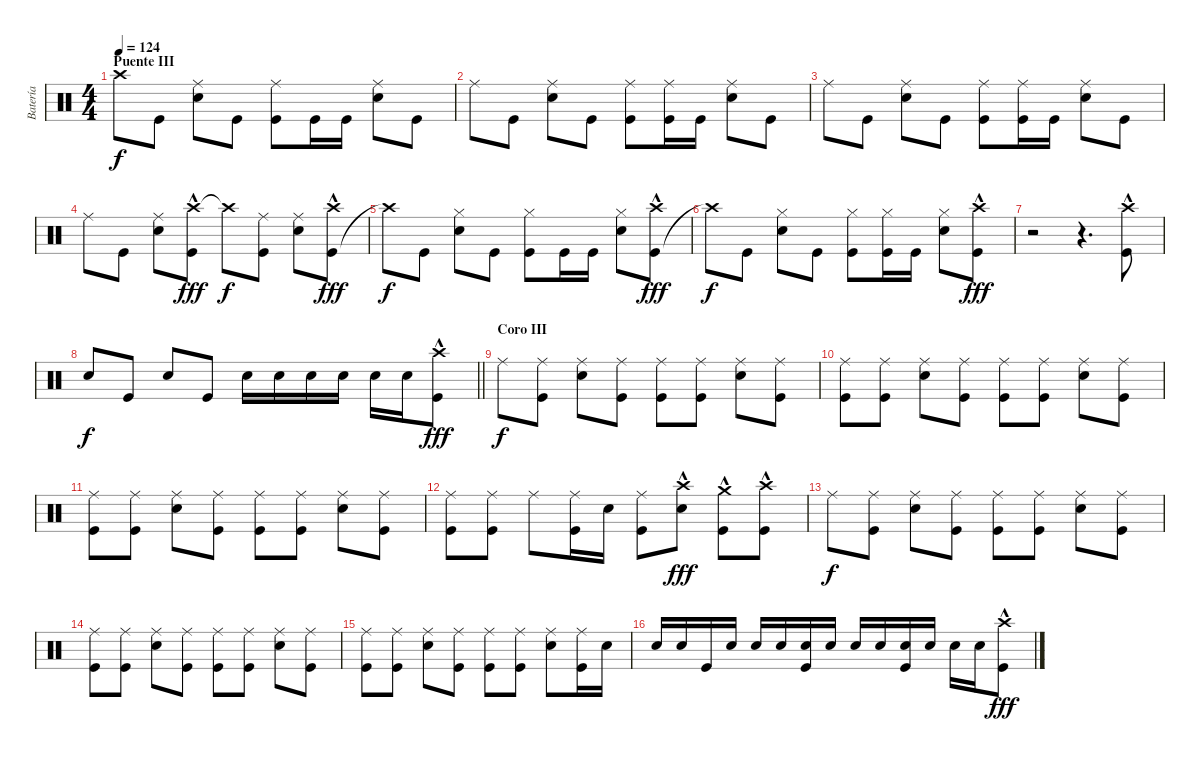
\track ("Batería" "Batería") {instrument percussion}
\staff {score}
\articulation defaults
\ts (4 4)
\section ("" "Puente III")
\tempo 124
\clef neutral
\ks c "Crash high (hit)"{t}.8{dy f} "Kick (hit)".8
("Snare (hit) 2" "Ride (middle)").8 "Kick (hit)".8 ("Ride (middle)" "Kick (hit)").8 "Kick (hit)".16 "Kick (hit)".16 ("Snare (hit) 2" "Ride (middle)").8 "Kick (hit)".8 |
"Ride (middle)".8 "Kick (hit)".8 ("Snare (hit) 2" "Ride (middle)").8 "Kick (hit)".8 ("Ride (middle)" "Kick (hit)").8 ("Kick (hit)" "Ride (middle)").16 "Kick (hit)".16 ("Ride (middle)" "Snare (hit) 2").8 "Kick (hit)".8 |
"Ride (middle)".8 "Kick (hit)".8 ("Snare (hit) 2" "Ride (middle)").8 "Kick (hit)".8 ("Ride (middle)" "Kick (hit)").8 ("Kick (hit)" "Ride (middle)").16 "Kick (hit)".16 ("Ride (middle)" "Snare (hit) 2").8 "Kick (hit)".8 |
"Ride (middle)".8 "Kick (hit)".8 ("Ride (middle)" "Snare (hit) 2").8 ("Crash high (hit)"{hac} "Kick (hit)").8{dy fff} "Crash high (hit)"{t}.8{dy f} ("Ride (middle)" "Kick (hit)").8 ("Snare (hit) 2" "Ride (middle)").8 ("Kick (hit)" "Crash high (hit)"{hac}).8{dy fff} |
"Crash high (hit)"{t}.8{dy f} "Kick (hit)".8 ("Snare (hit) 2" "Hi-Hat (closed)").8 "Kick (hit)".8 ("Hi-Hat (closed)" "Kick (hit)").8 "Kick (hit)".16 "Kick (hit)".16 ("Snare (hit) 2" "Hi-Hat (closed)").8 ("Kick (hit)" "Crash high (hit)"{hac}).8{dy fff} |
"Crash high (hit)"{t}.8{dy f} "Kick (hit)".8 ("Snare (hit) 2" "Hi-Hat (closed)").8 "Kick (hit)".8 ("Kick (hit)" "Hi-Hat (closed)").8 ("Kick (hit)" "Hi-Hat (closed)").16 "Kick (hit)".16 ("Hi-Hat (closed)" "Snare (hit) 2").8 ("Kick (hit)" "Crash high (hit)"{hac}).8{dy fff} |
r.2 r.4{d} ("Kick (hit)" "Crash high (hit)"{hac}).8 |
\barLineRight lightlight "Snare (hit) 2".8{dy f} "Kick (hit)".8 "Snare (hit) 2".8 "Kick (hit)".8 "Snare (hit) 2".16 "Snare (hit) 2".16 "Snare (hit) 2".16 "Snare (hit) 2".16 "Snare (hit) 2".16 "Snare (hit) 2".16
("Crash high (hit)" "Kick (hit)"{hac}).8{dy fff} |
\section ("" "Coro III")
"Ride (middle)".8{dy f} ("Ride (middle)" "Kick (hit)").8 ("Ride (middle)" "Snare (hit) 2").8 ("Ride (middle)" "Kick (hit)").8 ("Ride (middle)" "Kick (hit)").8 ("Ride (middle)" "Kick (hit)").8 ("Ride (middle)" "Snare (hit) 2").8 ("Ride (middle)" "Kick (hit)").8 |
("Ride (middle)" "Kick (hit)").8 ("Ride (middle)" "Kick (hit)").8 ("Ride (middle)" "Snare (hit) 2").8 ("Ride (middle)" "Kick (hit)").8 ("Ride (middle)" "Kick (hit)").8 ("Ride (middle)" "Kick (hit)").8 ("Ride (middle)" "Snare (hit) 2").8 ("Ride (middle)" "Kick (hit)").8 |
("Ride (middle)" "Kick (hit)").8 ("Ride (middle)" "Kick (hit)").8 ("Ride (middle)" "Snare (hit) 2").8 ("Ride (middle)" "Kick (hit)").8 ("Ride (middle)" "Kick (hit)").8 ("Ride (middle)" "Kick (hit)").8 ("Ride (middle)" "Snare (hit) 2").8 ("Ride (middle)" "Kick (hit)").8 |
("Kick (hit)" "Ride (middle)").8 ("Ride (middle)" "Kick (hit)").8 "Ride (middle)".8 ("Ride (middle)" "Kick (hit)").16 "Snare (hit) 2".16 ("Kick (hit)" "Ride (middle)").8 ("Snare (hit) 2" "Crash high (hit)"{hac}).8{dy fff} ("Kick (hit)" "Crash medium (hit)"{hac}).8 ("Kick (hit)" "Crash high (hit)"{hac}).8 |
"Ride (middle)".8{dy f} ("Ride (middle)" "Kick (hit)").8 ("Ride (middle)" "Snare (hit) 2").8 ("Ride (middle)" "Kick (hit)").8 ("Ride (middle)" "Kick (hit)").8 ("Ride (middle)" "Kick (hit)").8 ("Ride (middle)" "Snare (hit) 2").8 ("Ride (middle)" "Kick (hit)").8 |
("Ride (middle)" "Kick (hit)").8 ("Ride (middle)" "Kick (hit)").8 ("Ride (middle)" "Snare (hit) 2").8 ("Ride (middle)" "Kick (hit)").8 ("Ride (middle)" "Kick (hit)").8 ("Ride (middle)" "Kick (hit)").8 ("Ride (middle)" "Snare (hit) 2").8 ("Ride (middle)" "Kick (hit)").8 |
("Ride (middle)" "Kick (hit)").8 ("Ride (middle)" "Kick (hit)").8 ("Ride (middle)" "Snare (hit) 2").8 ("Ride (middle)" "Kick (hit)").8 ("Ride (middle)" "Kick (hit)").8 ("Ride (middle)" "Kick (hit)").8 ("Ride (middle)" "Snare (hit) 2").8 ("Ride (middle)" "Kick (hit)").16 "Snare (hit) 2".16 |
"Snare (hit) 2".16 "Snare (hit) 2".16 "Kick (hit)".16 "Snare (hit) 2".16 "Snare (hit) 2".16 "Snare (hit) 2".16 ("Snare (hit) 2" "Kick (hit)").16 "Snare (hit) 2".16 "Snare (hit) 2".16 "Snare (hit) 2".16 ("Snare (hit) 2" "Kick (hit)").16 "Snare (hit) 2".16 "Snare (hit) 2".16 "Snare (hit) 2".16 ("Kick (hit)" "Crash high (hit)"{hac}).8{dy fff}
